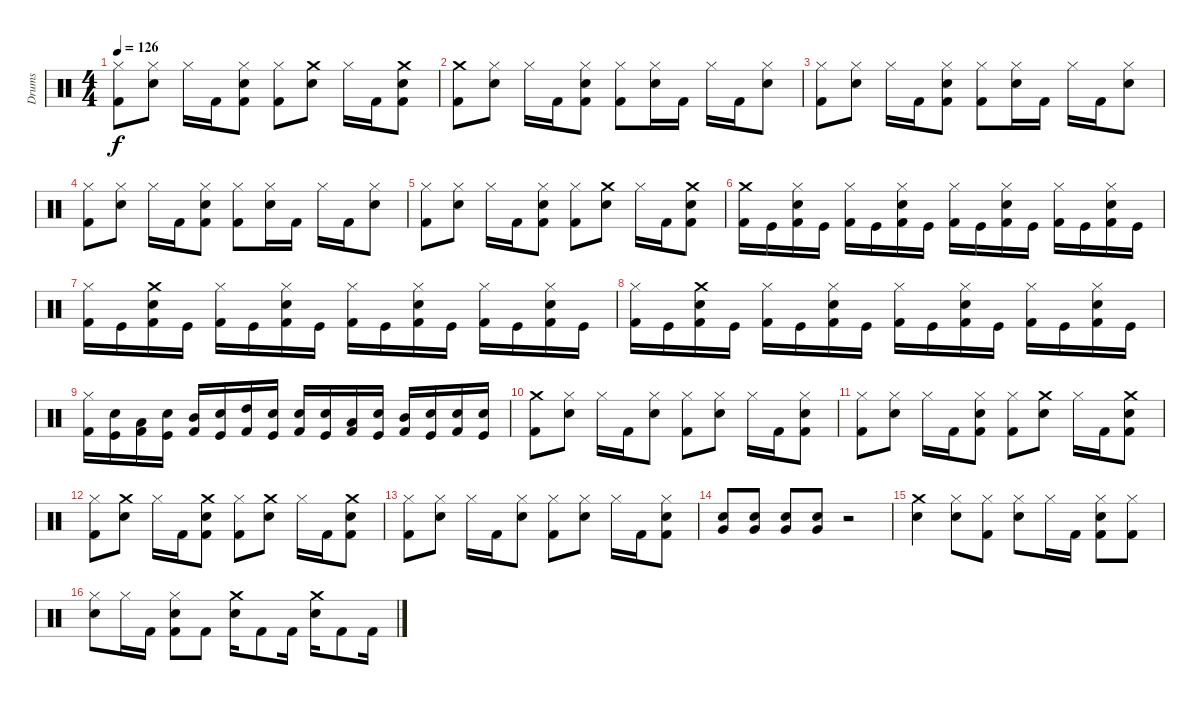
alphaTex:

\track ("Drums" "Drums") {instrument percussion}
\staff {score}
\articulation defaults
\ts (4 4)
\tempo 126
\clef neutral
\ks c
("Hi-Hat (closed)" "Kick (hit) 2").8{dy f} ("Snare (hit) 2" "Hi-Hat (closed)").8 "Hi-Hat (closed)".16 "Kick (hit) 2".16 ("Kick (hit) 2" "Snare (hit) 2" "Hi-Hat (closed)").8 ("Hi-Hat (closed)" "Kick (hit) 2").8 ("Crash medium (hit)" "Snare (hit) 2").8 "Hi-Hat (closed)".16 "Kick (hit) 2".16 ("Kick (hit) 2" "Crash medium (hit)" "Snare (hit) 2").8 |
("Crash medium (hit)" "Kick (hit) 2").8 ("Snare (hit) 2" "Hi-Hat (closed)").8 "Hi-Hat (closed)".16 "Kick (hit) 2".16 ("Kick (hit) 2" "Snare (hit) 2" "Hi-Hat (closed)").8 ("Kick (hit) 2" "Hi-Hat (closed)").8 ("Snare (hit) 2" "Hi-Hat (closed)").16 "Kick (hit) 2".16 "Hi-Hat (closed)".16 "Kick (hit) 2".16 ("Snare (hit) 2" "Hi-Hat (closed)").8 |
("Hi-Hat (closed)" "Kick (hit) 2").8 ("Snare (hit) 2" "Hi-Hat (closed)").8 "Hi-Hat (closed)".16 "Kick (hit) 2".16 ("Kick (hit) 2" "Snare (hit) 2" "Hi-Hat (closed)").8 ("Kick (hit) 2" "Hi-Hat (closed)").8 ("Snare (hit) 2" "Hi-Hat (closed)").16 "Kick (hit) 2".16 "Hi-Hat (closed)".16 "Kick (hit) 2".16 ("Snare (hit) 2" "Hi-Hat (closed)").8 |
("Hi-Hat (closed)" "Kick (hit) 2").8 ("Snare (hit) 2" "Hi-Hat (closed)").8 "Hi-Hat (closed)".16 "Kick (hit) 2".16 ("Kick (hit) 2" "Snare (hit) 2" "Hi-Hat (closed)").8 ("Kick (hit) 2" "Hi-Hat (closed)").8 ("Snare (hit) 2" "Hi-Hat (closed)").16 "Kick (hit) 2".16 "Hi-Hat (closed)".16 "Kick (hit) 2".16 ("Snare (hit) 2" "Hi-Hat (closed)").8 |
("Hi-Hat (closed)" "Kick (hit) 2").8 ("Snare (hit) 2" "Hi-Hat (closed)").8 "Hi-Hat (closed)".16 "Kick (hit) 2".16 ("Kick (hit) 2" "Snare (hit) 2" "Hi-Hat (closed)").8 ("Hi-Hat (closed)" "Kick (hit) 2").8 ("Crash medium (hit)" "Snare (hit) 2").8 "Hi-Hat (closed)".16 "Kick (hit) 2".16 ("Kick (hit) 2" "Crash medium (hit)" "Snare (hit) 2").8 |
("Crash medium (hit)" "Kick (hit) 2").16 "Kick (hit)".16 ("Snare (hit) 2" "Hi-Hat (closed)" "Kick (hit) 2").16 "Kick (hit)".16 ("Hi-Hat (closed)" "Kick (hit) 2").16 "Kick (hit)".16 ("Snare (hit) 2" "Hi-Hat (closed)" "Kick (hit) 2").16 "Kick (hit)".16 ("Hi-Hat (closed)" "Kick (hit) 2").16 "Kick (hit)".16 ("Snare (hit) 2" "Hi-Hat (closed)" "Kick (hit) 2").16 "Kick (hit)".16 ("Hi-Hat (closed)" "Kick (hit) 2").16 "Kick (hit)".16 ("Snare (hit) 2" "Hi-Hat (closed)" "Kick (hit) 2").16 "Kick (hit)".16 |
("Hi-Hat (closed)" "Kick (hit) 2").16 "Kick (hit)".16 ("Crash medium (hit)" "Snare (hit) 2" "Kick (hit) 2").16 "Kick (hit)".16 ("Hi-Hat (closed)" "Kick (hit) 2").16 "Kick (hit)".16 ("Snare (hit) 2" "Hi-Hat (closed)" "Kick (hit) 2").16 "Kick (hit)".16 ("Hi-Hat (closed)" "Kick (hit) 2").16 "Kick (hit)".16 ("Snare (hit) 2" "Hi-Hat (closed)" "Kick (hit) 2").16 "Kick (hit)".16 ("Hi-Hat (closed)" "Kick (hit) 2").16 "Kick (hit)".16 ("Snare (hit) 2" "Hi-Hat (closed)" "Kick (hit) 2").16 "Kick (hit)".16 |
("Hi-Hat (closed)" "Kick (hit) 2").16 "Kick (hit)".16 ("Crash medium (hit)" "Snare (hit) 2" "Kick (hit) 2").16 "Kick (hit)".16 ("Hi-Hat (closed)" "Kick (hit) 2").16 "Kick (hit)".16 ("Snare (hit) 2" "Hi-Hat (closed)" "Kick (hit) 2").16 "Kick (hit)".16 ("Hi-Hat (closed)" "Kick (hit) 2").16 "Kick (hit)".16 ("Snare (hit) 2" "Hi-Hat (closed)" "Kick (hit) 2").16 "Kick (hit)".16 ("Hi-Hat (closed)" "Kick (hit) 2").16 "Kick (hit)".16 ("Snare (hit) 2" "Hi-Hat (closed)" "Kick (hit) 2").16 "Kick (hit)".16 |
("Hi-Hat (closed)" "Kick (hit) 2").16 ("Snare (hit) 2" "Kick (hit)").16 ("Low Tom (hit)" "Kick (hit) 2").16 ("Snare (hit) 2" "Kick (hit)").16 ("Mid Tom (hit)" "Kick (hit) 2").16 ("Snare (hit) 2" "Kick (hit)").16 ("High Tom (hit)" "Kick (hit) 2").16 ("Snare (hit) 2" "Kick (hit)").16 ("Snare (hit) 2" "Kick (hit) 2").16 ("Snare (hit) 2" "Kick (hit)").16 ("Low Tom (hit)" "Kick (hit) 2").16 ("Snare (hit) 2" "Kick (hit)").16 ("Mid Tom (hit)" "Kick (hit) 2").16 ("Snare (hit) 2" "Kick (hit)").16 ("Snare (hit) 2" "Kick (hit) 2").16 ("Snare (hit) 2" "Kick (hit)").16 |
("Crash medium (hit)" "Kick (hit) 2").8 ("Snare (hit) 2" "Hi-Hat (closed)").8 "Hi-Hat (closed)".16 "Kick (hit) 2".16 ("Snare (hit) 2" "Hi-Hat (closed)").8 ("Hi-Hat (closed)" "Kick (hit) 2").8 ("Snare (hit) 2" "Hi-Hat (closed)").8 "Hi-Hat (closed)".16 "Kick (hit) 2".16 ("Snare (hit) 2" "Hi-Hat (closed)" "Kick (hit) 2").8 |
("Hi-Hat (closed)" "Kick (hit) 2").8 ("Snare (hit) 2" "Hi-Hat (closed)").8 "Hi-Hat (closed)".16 "Kick (hit) 2".16 ("Snare (hit) 2" "Hi-Hat (closed)" "Kick (hit) 2").8 ("Hi-Hat (closed)" "Kick (hit) 2").8 ("Crash medium (hit)" "Snare (hit) 2").8 "Hi-Hat (closed)".16 "Kick (hit) 2".16 ("Crash medium (hit)" "Snare (hit) 2" "Kick (hit) 2").8 |
("Hi-Hat (closed)" "Kick (hit) 2").8 ("Crash medium (hit)" "Snare (hit) 2").8 "Hi-Hat (closed)".16 "Kick (hit) 2".16 ("Crash medium (hit)" "Snare (hit) 2" "Kick (hit) 2").8 ("Hi-Hat (closed)" "Kick (hit) 2").8 ("Crash medium (hit)" "Snare (hit) 2").8 "Hi-Hat (closed)".16 "Kick (hit) 2".16 ("Crash medium (hit)" "Snare (hit) 2" "Kick (hit) 2").8 |
("Hi-Hat (closed)" "Kick (hit) 2").8 ("Snare (hit) 2" "Hi-Hat (closed)").8 "Hi-Hat (closed)".16 "Kick (hit) 2".16 ("Snare (hit) 2" "Hi-Hat (closed)").8 ("Hi-Hat (closed)" "Kick (hit) 2").8 ("Snare (hit) 2" "Hi-Hat (closed)").8 "Hi-Hat (closed)".16 "Kick (hit) 2".16 ("Snare (hit) 2" "Hi-Hat (closed)" "Kick (hit) 2").8 |
("Very Low Tom (hit)" "Snare (hit) 2").8 ("Very Low Tom (hit)" "Snare (hit) 2").8 ("Very Low Tom (hit)" "Snare (hit) 2").8 ("Very Low Tom (hit)" "Snare (hit) 2").8 r.2 |
("Snare (hit) 2" "Crash medium (hit)").4 ("Hi-Hat (closed)" "Snare (hit) 2").8 ("Kick (hit) 2" "Hi-Hat (closed)").8 ("Hi-Hat (closed)" "Snare (hit) 2").8 "Hi-Hat (closed)".16 "Kick (hit) 2".16 ("Kick (hit) 2" "Snare (hit) 2" "Hi-Hat (closed)").8 ("Hi-Hat (closed)" "Kick (hit) 2").8 |
("Hi-Hat (closed)" "Snare (hit) 2").8 "Hi-Hat (closed)".16 "Kick (hit) 2".16 ("Kick (hit) 2" "Snare (hit) 2" "Hi-Hat (closed)").8 "Kick (hit) 2".8 ("Snare (hit) 2" "Crash medium (hit)").16 "Kick (hit) 2".8 "Kick (hit) 2".16 ("Snare (hit) 2" "Crash medium (hit)").16 "Kick (hit) 2".8 "Kick (hit) 2".16
